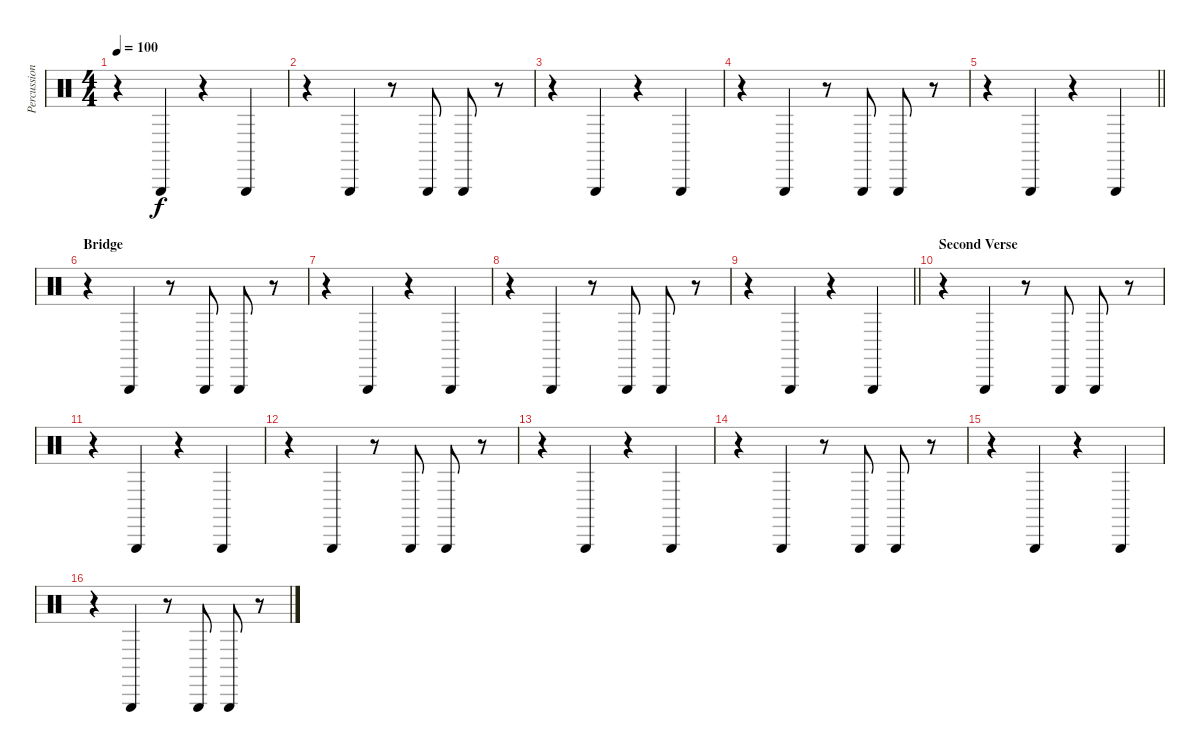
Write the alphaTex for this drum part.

\track ("Percussion - Joe Plummer" "Percussion") {instrument percussion}
\staff {score}
\articulation defaults
\ts (4 4)
\tempo 100
\clef neutral
\ks c
r.4{dy f} "Triangle (hit)".4 r.4 "Triangle (hit)".4 |
r.4 "Triangle (hit)".4 r.8 "Triangle (hit)".8 "Triangle (hit)".8 r.8 |
r.4 "Triangle (hit)".4 r.4 "Triangle (hit)".4 |
r.4 "Triangle (hit)".4 r.8 "Triangle (hit)".8 "Triangle (hit)".8 r.8 |
\barLineRight lightlight
r.4 "Triangle (hit)".4 r.4 "Triangle (hit)".4 |
\section ("" "Bridge")
r.4 "Triangle (hit)".4 r.8 "Triangle (hit)".8 "Triangle (hit)".8 r.8 |
r.4 "Triangle (hit)".4 r.4 "Triangle (hit)".4 |
r.4 "Triangle (hit)".4 r.8 "Triangle (hit)".8 "Triangle (hit)".8 r.8 |
\barLineRight lightlight
r.4 "Triangle (hit)".4 r.4 "Triangle (hit)".4 |
\section ("" "Second Verse")
r.4 "Triangle (hit)".4 r.8 "Triangle (hit)".8 "Triangle (hit)".8 r.8 |
r.4 "Triangle (hit)".4 r.4 "Triangle (hit)".4 |
r.4 "Triangle (hit)".4 r.8 "Triangle (hit)".8 "Triangle (hit)".8 r.8 |
r.4 "Triangle (hit)".4 r.4 "Triangle (hit)".4 |
r.4 "Triangle (hit)".4 r.8 "Triangle (hit)".8 "Triangle (hit)".8 r.8 |
r.4 "Triangle (hit)".4 r.4 "Triangle (hit)".4 |
r.4 "Triangle (hit)".4 r.8 "Triangle (hit)".8 "Triangle (hit)".8 r.8
